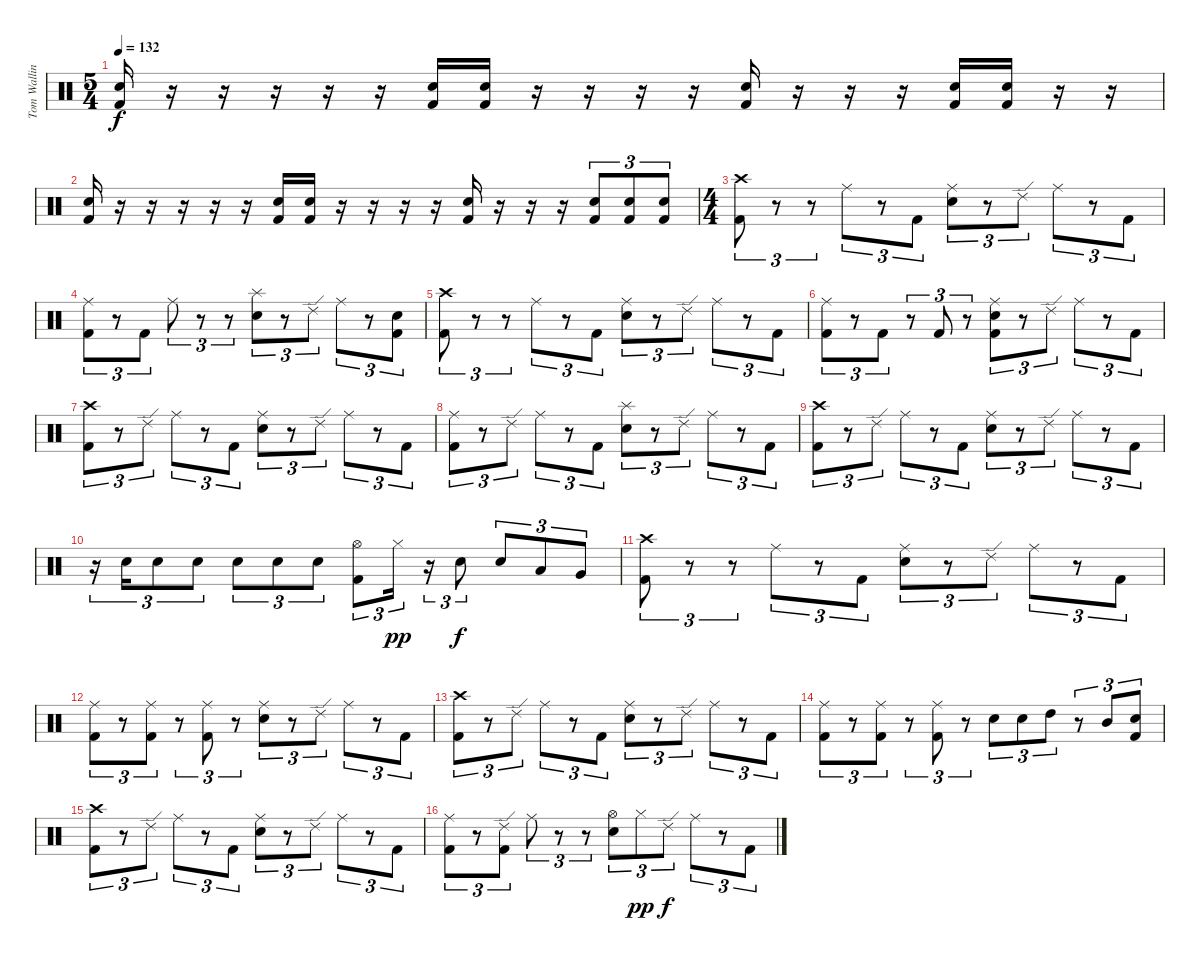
\track ("Tom Walling [Drums]" "Tom Wallin") {instrument percussion}
\staff {score}
\articulation defaults
\ts (5 4)
\tempo 132
\clef neutral
\ks c
("Electric Snare (hit)" "Kick (hit) 2").16{dy f} r.16 r.16 r.16 r.16 r.16 ("Electric Snare (hit)" "Kick (hit) 2").16 ("Electric Snare (hit)" "Kick (hit) 2").16 r.16 r.16 r.16 r.16 ("Electric Snare (hit)" "Kick (hit) 2").16 r.16 r.16 r.16 ("Electric Snare (hit)" "Kick (hit) 2").16 ("Electric Snare (hit)" "Kick (hit) 2").16 r.16 r.16 |
("Electric Snare (hit)" "Kick (hit) 2").16 r.16 r.16 r.16 r.16 r.16 ("Electric Snare (hit)" "Kick (hit) 2").16 ("Electric Snare (hit)" "Kick (hit) 2").16 r.16 r.16 r.16 r.16 ("Electric Snare (hit)" "Kick (hit) 2").16 r.16 r.16 r.16 ("Electric Snare (hit)" "Kick (hit) 2").8{tu (3 2)} ("Electric Snare (hit)" "Kick (hit) 2").8{tu (3 2)} ("Electric Snare (hit)" "Kick (hit) 2").8{tu (3 2)} |
\ts (4 4)
("Crash high (hit)" "Kick (hit) 2").8{tu (3 2)} r.8{tu (3 2)} r.8{tu (3 2)} "Ride (middle)".8{tu (3 2)} r.8{tu (3 2)} "Kick (hit) 2".8{tu (3 2)} ("Ride (middle)" "Electric Snare (hit)").8{tu (3 2)} r.8{tu (3 2)} "Ride (edge) 2".8{tu (3 2)} "Ride (middle)".8{tu (3 2)} r.8{tu (3 2)} "Kick (hit) 2".8{tu (3 2)} |
("Ride (middle)" "Kick (hit) 2").8{tu (3 2)} r.8{tu (3 2)} "Kick (hit) 2".8{tu (3 2)} "Ride (middle)".8{tu (3 2)} r.8{tu (3 2)} r.8{tu (3 2)} ("Splash (hit)" "Electric Snare (hit)").8{tu (3 2)} r.8{tu (3 2)} "Ride (edge) 2".8{tu (3 2)} "Ride (middle)".8{tu (3 2)} r.8{tu (3 2)} ("Electric Snare (hit)" "Kick (hit) 2").8{tu (3 2)} |
("Crash high (hit)" "Kick (hit) 2").8{tu (3 2)} r.8{tu (3 2)} r.8{tu (3 2)} "Ride (middle)".8{tu (3 2)} r.8{tu (3 2)} "Kick (hit) 2".8{tu (3 2)} ("Ride (middle)" "Electric Snare (hit)").8{tu (3 2)} r.8{tu (3 2)} "Ride (edge) 2".8{tu (3 2)} "Ride (middle)".8{tu (3 2)} r.8{tu (3 2)} "Kick (hit) 2".8{tu (3 2)} |
("Ride (middle)" "Kick (hit) 2").8{tu (3 2)} r.8{tu (3 2)} "Kick (hit) 2".8{tu (3 2)} r.8{tu (3 2)} "Kick (hit) 2".8{tu (3 2)} r.8{tu (3 2)} ("Ride (middle)" "Electric Snare (hit)" "Kick (hit) 2").8{tu (3 2)} r.8{tu (3 2)} "Ride (edge) 2".8{tu (3 2)} "Ride (middle)".8{tu (3 2)} r.8{tu (3 2)} "Kick (hit) 2".8{tu (3 2)} |
("Crash high (hit)" "Kick (hit) 2").8{tu (3 2)} r.8{tu (3 2)} "Ride (edge) 2".8{tu (3 2)} "Ride (middle)".8{tu (3 2)} r.8{tu (3 2)} "Kick (hit) 2".8{tu (3 2)} ("Ride (middle)" "Electric Snare (hit)").8{tu (3 2)} r.8{tu (3 2)} "Ride (edge) 2".8{tu (3 2)} "Ride (middle)".8{tu (3 2)} r.8{tu (3 2)} "Kick (hit) 2".8{tu (3 2)} |
("Ride (middle)" "Kick (hit) 2").8{tu (3 2)} r.8{tu (3 2)} "Ride (edge) 2".8{tu (3 2)} "Ride (middle)".8{tu (3 2)} r.8{tu (3 2)} "Kick (hit) 2".8{tu (3 2)} ("Splash (hit)" "Electric Snare (hit)").8{tu (3 2)} r.8{tu (3 2)} "Ride (edge) 2".8{tu (3 2)} "Ride (middle)".8{tu (3 2)} r.8{tu (3 2)} "Kick (hit) 2".8{tu (3 2)} |
("Crash high (hit)" "Kick (hit) 2").8{tu (3 2)} r.8{tu (3 2)} "Ride (edge) 2".8{tu (3 2)} "Ride (middle)".8{tu (3 2)} r.8{tu (3 2)} "Kick (hit) 2".8{tu (3 2)} ("Ride (middle)" "Electric Snare (hit)").8{tu (3 2)} r.8{tu (3 2)} "Ride (edge) 2".8{tu (3 2)} "Ride (middle)".8{tu (3 2)} r.8{tu (3 2)} "Kick (hit) 2".8{tu (3 2)} |
r.16{tu (3 2)} "Electric Snare (hit)".16{tu (3 2)} "Electric Snare (hit)".8{tu (3 2)} "Electric Snare (hit)".8{tu (3 2)} "Electric Snare (hit)".8{tu (3 2)} "Electric Snare (hit)".8{tu (3 2)} "Electric Snare (hit)".8{tu (3 2)} ("Hi-Hat (open)" "Kick (hit) 2").8{tu (3 2)} "Hi-Hat (closed)".16{tu (3 2) dy pp} r.16{tu (3 2)} "Electric Snare (hit)".8{tu (3 2) dy f} "Electric Snare (hit)".8{tu (3 2)} "Low Tom (hit)".8{tu (3 2)} "Very Low Tom (hit)".8{tu (3 2)} |
("Crash high (hit)" "Kick (hit) 2").8{tu (3 2)} r.8{tu (3 2)} r.8{tu (3 2)} "Ride (middle)".8{tu (3 2)} r.8{tu (3 2)} "Kick (hit) 2".8{tu (3 2)} ("Ride (middle)" "Electric Snare (hit)").8{tu (3 2)} r.8{tu (3 2)} "Ride (edge) 2".8{tu (3 2)} "Ride (middle)".8{tu (3 2)} r.8{tu (3 2)} "Kick (hit) 2".8{tu (3 2)} |
("Ride (middle)" "Kick (hit) 2").8{tu (3 2)} r.8{tu (3 2)} ("Ride (middle)" "Kick (hit) 2").8{tu (3 2)} r.8{tu (3 2)} ("Ride (middle)" "Kick (hit) 2").8{tu (3 2)} r.8{tu (3 2)} ("Ride (middle)" "Electric Snare (hit)").8{tu (3 2)} r.8{tu (3 2)} "Ride (edge) 2".8{tu (3 2)} "Ride (middle)".8{tu (3 2)} r.8{tu (3 2)} "Kick (hit) 2".8{tu (3 2)} |
("Crash high (hit)" "Kick (hit) 2").8{tu (3 2)} r.8{tu (3 2)} "Ride (edge) 2".8{tu (3 2)} "Ride (middle)".8{tu (3 2)} r.8{tu (3 2)} "Kick (hit) 2".8{tu (3 2)} ("Ride (middle)" "Electric Snare (hit)").8{tu (3 2)} r.8{tu (3 2)} "Ride (edge) 2".8{tu (3 2)} "Ride (middle)".8{tu (3 2)} r.8{tu (3 2)} "Kick (hit) 2".8{tu (3 2)} |
("Ride (middle)" "Kick (hit) 2").8{tu (3 2)} r.8{tu (3 2)} ("Ride (middle)" "Kick (hit) 2").8{tu (3 2)} r.8{tu (3 2)} ("Ride (middle)" "Kick (hit) 2").8{tu (3 2)} r.8{tu (3 2)} "Electric Snare (hit)".8{tu (3 2)} "Electric Snare (hit)".8{tu (3 2)} "High Tom (hit)".8{tu (3 2)} r.8{tu (3 2)} "Mid Tom (hit)".8{tu (3 2)} ("Electric Snare (hit)" "Kick (hit) 2").8{tu (3 2)} |
("Crash high (hit)" "Kick (hit) 2").8{tu (3 2)} r.8{tu (3 2)} "Ride (edge) 2".8{tu (3 2)} "Ride (middle)".8{tu (3 2)} r.8{tu (3 2)} "Kick (hit) 2".8{tu (3 2)} ("Ride (middle)" "Electric Snare (hit)").8{tu (3 2)} r.8{tu (3 2)} "Ride (edge) 2".8{tu (3 2)} "Ride (middle)".8{tu (3 2)} r.8{tu (3 2)} "Kick (hit) 2".8{tu (3 2)} |
("Ride (middle)" "Kick (hit) 2").8{tu (3 2)} r.8{tu (3 2)} ("Ride (edge) 2" "Kick (hit) 2").8{tu (3 2)} "Ride (middle)".8{tu (3 2)} r.8{tu (3 2)} r.8{tu (3 2)} ("Hi-Hat (open)" "Electric Snare (hit)").8{tu (3 2)} "Hi-Hat (closed)".8{tu (3 2) dy pp} "Ride (edge) 2".8{tu (3 2) dy f} "Ride (middle)".8{tu (3 2)} r.8{tu (3 2)} "Kick (hit) 2".8{tu (3 2)}
